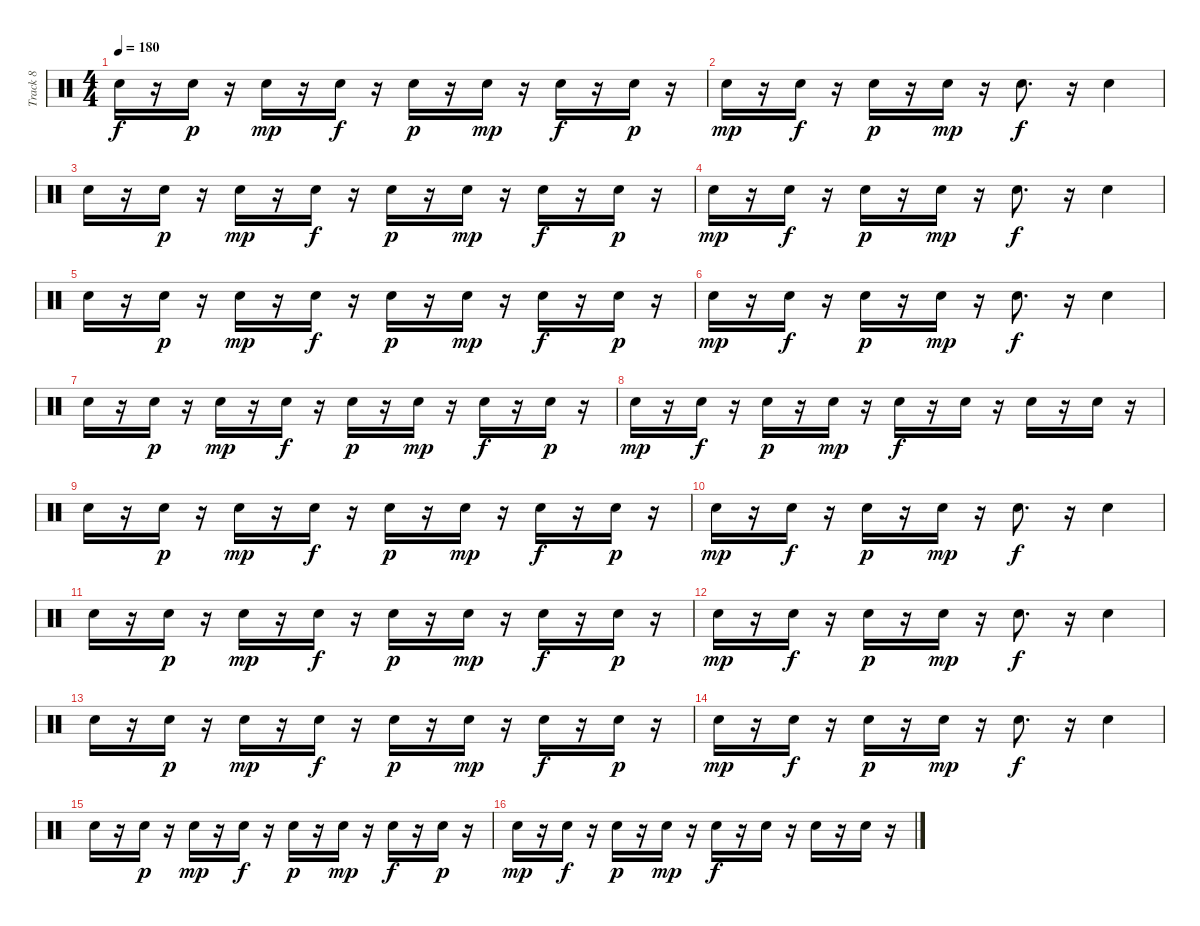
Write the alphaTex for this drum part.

\track ("Track 8" "Track 8") {instrument percussion}
\staff {score}
\articulation defaults
\ts (4 4)
\tempo 180
\clef neutral
\ks c "Electric Snare (hit)".16{dy f}
r.16 "Electric Snare (hit)".16{dy p} r.16 "Electric Snare (hit)".16{dy mp} r.16 "Electric Snare (hit)".16{dy f} r.16 "Electric Snare (hit)".16{dy p} r.16 "Electric Snare (hit)".16{dy mp} r.16 "Electric Snare (hit)".16{dy f} r.16 "Electric Snare (hit)".16{dy p} r.16 |
"Electric Snare (hit)".16{dy mp} r.16 "Electric Snare (hit)".16{dy f} r.16 "Electric Snare (hit)".16{dy p} r.16 "Electric Snare (hit)".16{dy mp} r.16 "Electric Snare (hit)".8{d dy f} r.16 "Electric Snare (hit)".4 |
"Electric Snare (hit)".16 r.16 "Electric Snare (hit)".16{dy p} r.16 "Electric Snare (hit)".16{dy mp} r.16 "Electric Snare (hit)".16{dy f} r.16 "Electric Snare (hit)".16{dy p} r.16 "Electric Snare (hit)".16{dy mp} r.16 "Electric Snare (hit)".16{dy f} r.16 "Electric Snare (hit)".16{dy p} r.16 |
"Electric Snare (hit)".16{dy mp} r.16 "Electric Snare (hit)".16{dy f} r.16 "Electric Snare (hit)".16{dy p} r.16 "Electric Snare (hit)".16{dy mp} r.16 "Electric Snare (hit)".8{d dy f} r.16 "Electric Snare (hit)".4 |
"Electric Snare (hit)".16 r.16 "Electric Snare (hit)".16{dy p} r.16 "Electric Snare (hit)".16{dy mp} r.16 "Electric Snare (hit)".16{dy f} r.16 "Electric Snare (hit)".16{dy p} r.16 "Electric Snare (hit)".16{dy mp} r.16 "Electric Snare (hit)".16{dy f} r.16 "Electric Snare (hit)".16{dy p} r.16 |
"Electric Snare (hit)".16{dy mp} r.16 "Electric Snare (hit)".16{dy f} r.16 "Electric Snare (hit)".16{dy p} r.16 "Electric Snare (hit)".16{dy mp} r.16 "Electric Snare (hit)".8{d dy f} r.16 "Electric Snare (hit)".4 |
"Electric Snare (hit)".16 r.16 "Electric Snare (hit)".16{dy p} r.16 "Electric Snare (hit)".16{dy mp} r.16 "Electric Snare (hit)".16{dy f} r.16 "Electric Snare (hit)".16{dy p} r.16 "Electric Snare (hit)".16{dy mp} r.16 "Electric Snare (hit)".16{dy f} r.16 "Electric Snare (hit)".16{dy p} r.16 |
"Electric Snare (hit)".16{dy mp} r.16 "Electric Snare (hit)".16{dy f} r.16 "Electric Snare (hit)".16{dy p} r.16 "Electric Snare (hit)".16{dy mp} r.16 "Electric Snare (hit)".16{dy f} r.16 "Electric Snare (hit)".16 r.16 "Electric Snare (hit)".16 r.16 "Electric Snare (hit)".16 r.16 |
"Electric Snare (hit)".16 r.16 "Electric Snare (hit)".16{dy p} r.16 "Electric Snare (hit)".16{dy mp} r.16 "Electric Snare (hit)".16{dy f} r.16 "Electric Snare (hit)".16{dy p} r.16 "Electric Snare (hit)".16{dy mp} r.16 "Electric Snare (hit)".16{dy f} r.16 "Electric Snare (hit)".16{dy p} r.16 |
"Electric Snare (hit)".16{dy mp} r.16 "Electric Snare (hit)".16{dy f} r.16 "Electric Snare (hit)".16{dy p} r.16 "Electric Snare (hit)".16{dy mp} r.16 "Electric Snare (hit)".8{d dy f} r.16 "Electric Snare (hit)".4 |
"Electric Snare (hit)".16 r.16 "Electric Snare (hit)".16{dy p} r.16 "Electric Snare (hit)".16{dy mp} r.16 "Electric Snare (hit)".16{dy f} r.16 "Electric Snare (hit)".16{dy p} r.16 "Electric Snare (hit)".16{dy mp} r.16 "Electric Snare (hit)".16{dy f} r.16 "Electric Snare (hit)".16{dy p} r.16 |
"Electric Snare (hit)".16{dy mp} r.16 "Electric Snare (hit)".16{dy f} r.16 "Electric Snare (hit)".16{dy p} r.16 "Electric Snare (hit)".16{dy mp} r.16 "Electric Snare (hit)".8{d dy f} r.16 "Electric Snare (hit)".4 |
"Electric Snare (hit)".16 r.16 "Electric Snare (hit)".16{dy p} r.16 "Electric Snare (hit)".16{dy mp} r.16 "Electric Snare (hit)".16{dy f} r.16 "Electric Snare (hit)".16{dy p} r.16 "Electric Snare (hit)".16{dy mp} r.16 "Electric Snare (hit)".16{dy f} r.16 "Electric Snare (hit)".16{dy p} r.16 |
"Electric Snare (hit)".16{dy mp} r.16 "Electric Snare (hit)".16{dy f} r.16 "Electric Snare (hit)".16{dy p} r.16 "Electric Snare (hit)".16{dy mp} r.16 "Electric Snare (hit)".8{d dy f} r.16 "Electric Snare (hit)".4 |
"Electric Snare (hit)".16 r.16 "Electric Snare (hit)".16{dy p} r.16 "Electric Snare (hit)".16{dy mp} r.16 "Electric Snare (hit)".16{dy f} r.16 "Electric Snare (hit)".16{dy p} r.16 "Electric Snare (hit)".16{dy mp} r.16 "Electric Snare (hit)".16{dy f} r.16 "Electric Snare (hit)".16{dy p} r.16 |
"Electric Snare (hit)".16{dy mp} r.16 "Electric Snare (hit)".16{dy f} r.16 "Electric Snare (hit)".16{dy p} r.16 "Electric Snare (hit)".16{dy mp} r.16 "Electric Snare (hit)".16{dy f} r.16 "Electric Snare (hit)".16 r.16 "Electric Snare (hit)".16 r.16 "Electric Snare (hit)".16 r.16
